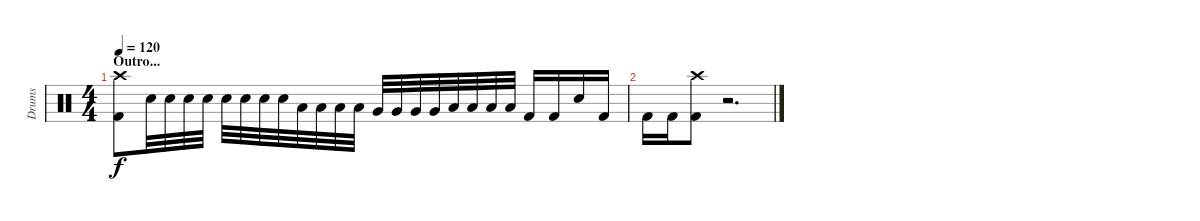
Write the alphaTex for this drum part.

\track ("Drums" "Drums") {instrument percussion}
\staff {score}
\articulation defaults
\ts (4 4)
\section ("" "Outro...")
\tempo 120
\clef neutral
\ks c
("Crash high (hit)" "Kick (hit) 2").8{dy f} "Snare (hit) 2".32 "Snare (hit) 2".32 "Snare (hit) 2".32 "Snare (hit) 2".32 "Snare (hit) 2".32 "Snare (hit) 2".32 "Snare (hit) 2".32 "Snare (hit) 2".32 "Low Tom (hit)".32 "Low Tom (hit)".32 "Low Tom (hit)".32 "Low Tom (hit)".32 "Very Low Tom (hit)".32 "Very Low Tom (hit)".32 "Very Low Tom (hit)".32 "Very Low Tom (hit)".32 "Low Floor Tom (hit)".32 "Low Floor Tom (hit)".32 "Low Floor Tom (hit)".32 "Low Floor Tom (hit)".32 "Kick (hit) 2".16 "Kick (hit) 2".16 "Snare (hit) 2".16 "Kick (hit) 2".16 |
"Kick (hit) 2".16 "Kick (hit) 2".16 ("Crash high (hit)" "Kick (hit) 2").8 r.2{d}
